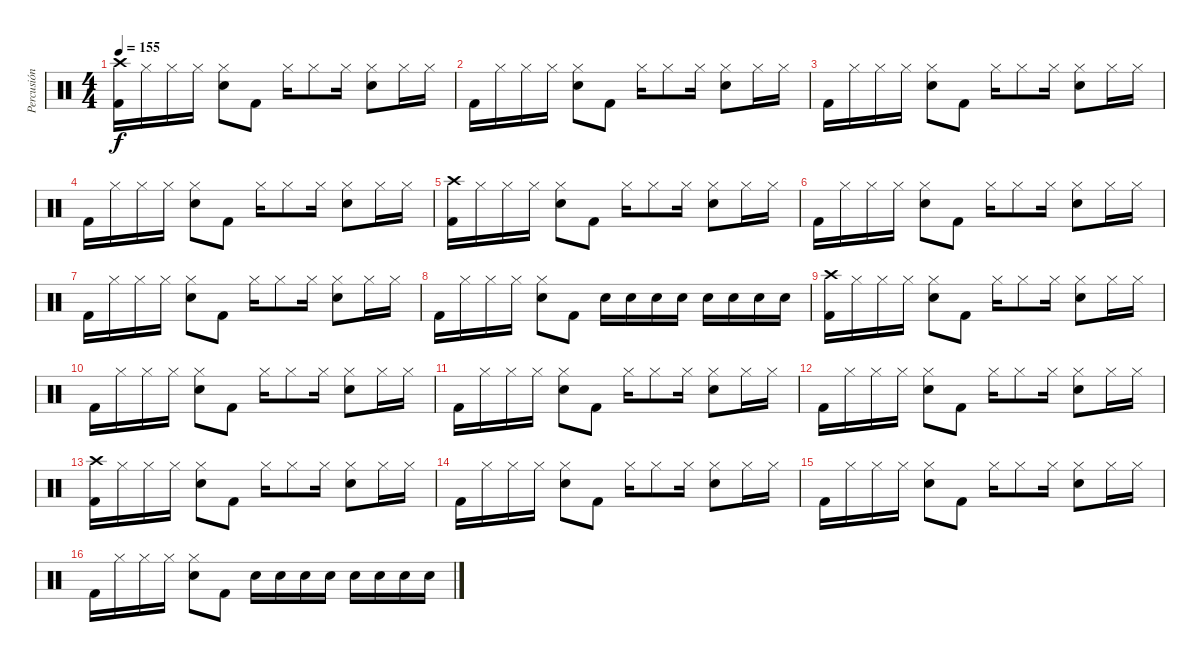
\track ("Percusión" "Percusión") {instrument percussion}
\staff {score}
\articulation defaults
\ts (4 4)
\tempo 155
\clef neutral
\ks c
("Crash high (hit)" "Kick (hit) 2").16{dy f} "Hi-Hat (closed)".16 "Hi-Hat (closed)".16 "Hi-Hat (closed)".16 ("Hi-Hat (closed)" "Snare (hit) 2").8 "Kick (hit) 2".8 "Hi-Hat (closed)".16 "Hi-Hat (closed)".8 "Hi-Hat (closed)".16 ("Hi-Hat (closed)" "Snare (hit) 2").8 "Hi-Hat (closed)".16 "Hi-Hat (closed)".16 |
"Kick (hit) 2".16 "Hi-Hat (closed)".16 "Hi-Hat (closed)".16 "Hi-Hat (closed)".16 ("Hi-Hat (closed)" "Snare (hit) 2").8 "Kick (hit) 2".8 "Hi-Hat (closed)".16 "Hi-Hat (closed)".8 "Hi-Hat (closed)".16 ("Hi-Hat (closed)" "Snare (hit) 2").8 "Hi-Hat (closed)".16 "Hi-Hat (closed)".16 |
"Kick (hit) 2".16 "Hi-Hat (closed)".16 "Hi-Hat (closed)".16 "Hi-Hat (closed)".16 ("Hi-Hat (closed)" "Snare (hit) 2").8 "Kick (hit) 2".8 "Hi-Hat (closed)".16 "Hi-Hat (closed)".8 "Hi-Hat (closed)".16 ("Hi-Hat (closed)" "Snare (hit) 2").8 "Hi-Hat (closed)".16 "Hi-Hat (closed)".16 |
"Kick (hit) 2".16 "Hi-Hat (closed)".16 "Hi-Hat (closed)".16 "Hi-Hat (closed)".16 ("Hi-Hat (closed)" "Snare (hit) 2").8 "Kick (hit) 2".8 "Hi-Hat (closed)".16 "Hi-Hat (closed)".8 "Hi-Hat (closed)".16 ("Hi-Hat (closed)" "Snare (hit) 2").8 "Hi-Hat (closed)".16 "Hi-Hat (closed)".16 |
("Crash high (hit)" "Kick (hit) 2").16 "Hi-Hat (closed)".16 "Hi-Hat (closed)".16 "Hi-Hat (closed)".16 ("Hi-Hat (closed)" "Snare (hit) 2").8 "Kick (hit) 2".8 "Hi-Hat (closed)".16 "Hi-Hat (closed)".8 "Hi-Hat (closed)".16 ("Hi-Hat (closed)" "Snare (hit) 2").8 "Hi-Hat (closed)".16 "Hi-Hat (closed)".16 |
"Kick (hit) 2".16 "Hi-Hat (closed)".16 "Hi-Hat (closed)".16 "Hi-Hat (closed)".16 ("Hi-Hat (closed)" "Snare (hit) 2").8 "Kick (hit) 2".8 "Hi-Hat (closed)".16 "Hi-Hat (closed)".8 "Hi-Hat (closed)".16 ("Hi-Hat (closed)" "Snare (hit) 2").8 "Hi-Hat (closed)".16 "Hi-Hat (closed)".16 |
"Kick (hit) 2".16 "Hi-Hat (closed)".16 "Hi-Hat (closed)".16 "Hi-Hat (closed)".16 ("Hi-Hat (closed)" "Snare (hit) 2").8 "Kick (hit) 2".8 "Hi-Hat (closed)".16 "Hi-Hat (closed)".8 "Hi-Hat (closed)".16 ("Hi-Hat (closed)" "Snare (hit) 2").8 "Hi-Hat (closed)".16 "Hi-Hat (closed)".16 |
"Kick (hit) 2".16 "Hi-Hat (closed)".16 "Hi-Hat (closed)".16 "Hi-Hat (closed)".16 ("Hi-Hat (closed)" "Snare (hit) 2").8 "Kick (hit) 2".8 "Snare (hit) 2".16 "Snare (hit) 2".16 "Snare (hit) 2".16 "Snare (hit) 2".16 "Snare (hit) 2".16 "Snare (hit) 2".16 "Snare (hit) 2".16 "Snare (hit) 2".16 |
("Crash high (hit)" "Kick (hit) 2").16 "Hi-Hat (closed)".16 "Hi-Hat (closed)".16 "Hi-Hat (closed)".16 ("Hi-Hat (closed)" "Snare (hit) 2").8 "Kick (hit) 2".8 "Hi-Hat (closed)".16 "Hi-Hat (closed)".8 "Hi-Hat (closed)".16 ("Hi-Hat (closed)" "Snare (hit) 2").8 "Hi-Hat (closed)".16 "Hi-Hat (closed)".16 |
"Kick (hit) 2".16 "Hi-Hat (closed)".16 "Hi-Hat (closed)".16 "Hi-Hat (closed)".16 ("Hi-Hat (closed)" "Snare (hit) 2").8 "Kick (hit) 2".8 "Hi-Hat (closed)".16 "Hi-Hat (closed)".8 "Hi-Hat (closed)".16 ("Hi-Hat (closed)" "Snare (hit) 2").8 "Hi-Hat (closed)".16 "Hi-Hat (closed)".16 |
"Kick (hit) 2".16 "Hi-Hat (closed)".16 "Hi-Hat (closed)".16 "Hi-Hat (closed)".16 ("Hi-Hat (closed)" "Snare (hit) 2").8 "Kick (hit) 2".8 "Hi-Hat (closed)".16 "Hi-Hat (closed)".8 "Hi-Hat (closed)".16 ("Hi-Hat (closed)" "Snare (hit) 2").8 "Hi-Hat (closed)".16 "Hi-Hat (closed)".16 |
"Kick (hit) 2".16 "Hi-Hat (closed)".16 "Hi-Hat (closed)".16 "Hi-Hat (closed)".16 ("Hi-Hat (closed)" "Snare (hit) 2").8 "Kick (hit) 2".8 "Hi-Hat (closed)".16 "Hi-Hat (closed)".8 "Hi-Hat (closed)".16 ("Hi-Hat (closed)" "Snare (hit) 2").8 "Hi-Hat (closed)".16 "Hi-Hat (closed)".16 |
("Crash high (hit)" "Kick (hit) 2").16 "Hi-Hat (closed)".16 "Hi-Hat (closed)".16 "Hi-Hat (closed)".16 ("Hi-Hat (closed)" "Snare (hit) 2").8 "Kick (hit) 2".8 "Hi-Hat (closed)".16 "Hi-Hat (closed)".8 "Hi-Hat (closed)".16 ("Hi-Hat (closed)" "Snare (hit) 2").8 "Hi-Hat (closed)".16 "Hi-Hat (closed)".16 |
"Kick (hit) 2".16 "Hi-Hat (closed)".16 "Hi-Hat (closed)".16 "Hi-Hat (closed)".16 ("Hi-Hat (closed)" "Snare (hit) 2").8 "Kick (hit) 2".8 "Hi-Hat (closed)".16 "Hi-Hat (closed)".8 "Hi-Hat (closed)".16 ("Hi-Hat (closed)" "Snare (hit) 2").8 "Hi-Hat (closed)".16 "Hi-Hat (closed)".16 |
"Kick (hit) 2".16 "Hi-Hat (closed)".16 "Hi-Hat (closed)".16 "Hi-Hat (closed)".16 ("Hi-Hat (closed)" "Snare (hit) 2").8 "Kick (hit) 2".8 "Hi-Hat (closed)".16 "Hi-Hat (closed)".8 "Hi-Hat (closed)".16 ("Hi-Hat (closed)" "Snare (hit) 2").8 "Hi-Hat (closed)".16 "Hi-Hat (closed)".16 |
"Kick (hit) 2".16 "Hi-Hat (closed)".16 "Hi-Hat (closed)".16 "Hi-Hat (closed)".16 ("Hi-Hat (closed)" "Snare (hit) 2").8 "Kick (hit) 2".8 "Snare (hit) 2".16 "Snare (hit) 2".16 "Snare (hit) 2".16 "Snare (hit) 2".16 "Snare (hit) 2".16 "Snare (hit) 2".16 "Snare (hit) 2".16 "Snare (hit) 2".16
